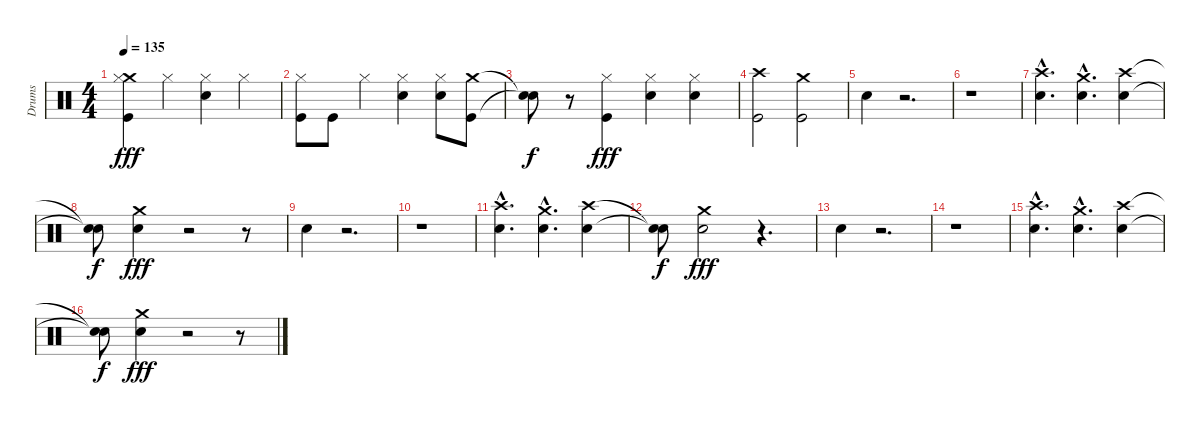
\track ("Drums" "Drums") {instrument percussion}
\staff {score}
\articulation defaults
\ts (4 4)
\tempo 135
\clef neutral
\ks c
("Crash medium (hit)" "Kick (hit)" "Hi-Hat (closed)").4{dy fff} "Hi-Hat (closed)".4 ("Snare (hit) 2" "Hi-Hat (closed)").4 "Hi-Hat (closed)".4 |
("Kick (hit)" "Hi-Hat (closed)").8 "Kick (hit)".8 "Hi-Hat (closed)".4 ("Snare (hit) 2" "Hi-Hat (closed)").4 ("Snare (hit) 2" "Hi-Hat (closed)").8 ("Kick (hit)" "Crash medium (hit)").8 |
("Snare (hit)"{t} "Snare (hit)"{t}).8{dy f} r.8 ("Kick (hit)" "Hi-Hat (closed)").4{dy fff} ("Snare (hit) 2" "Hi-Hat (closed)").4 ("Snare (hit) 2" "Hi-Hat (closed)").4 |
("Crash high (hit)" "Kick (hit)").2 ("Crash medium (hit)" "Kick (hit)").2 |
"Snare (hit) 2".4 r.2{d} |
r.1 |
("Snare (hit) 2"{hac} "Crash high (hit)"{hac}).4{d} ("Snare (hit) 2"{hac} "Crash medium (hit)"{hac}).4{d} ("Crash high (hit)" "Snare (hit) 2").4 |
("Snare (hit)"{t} "Snare (hit)"{t}).8{dy f} ("Snare (hit) 2" "Crash medium (hit)").4{dy fff} r.2 r.8 |
"Snare (hit) 2".4 r.2{d} |
r.1 |
("Snare (hit) 2"{hac} "Crash high (hit)"{hac}).4{d} ("Snare (hit) 2"{hac} "Crash medium (hit)"{hac}).4{d} ("Snare (hit) 2" "Crash high (hit)").4 |
("Snare (hit)"{t} "Snare (hit)"{t}).8{dy f} ("Snare (hit) 2" "Crash medium (hit)").2{dy fff} r.4{d} |
"Snare (hit) 2".4 r.2{d} |
r.1 |
("Snare (hit) 2"{hac} "Crash high (hit)"{hac}).4{d} ("Snare (hit) 2"{hac} "Crash medium (hit)"{hac}).4{d} ("Snare (hit) 2" "Crash high (hit)").4 |
("Snare (hit)"{t} "Snare (hit)"{t}).8{dy f} ("Snare (hit) 2" "Crash medium (hit)").4{dy fff} r.2 r.8
